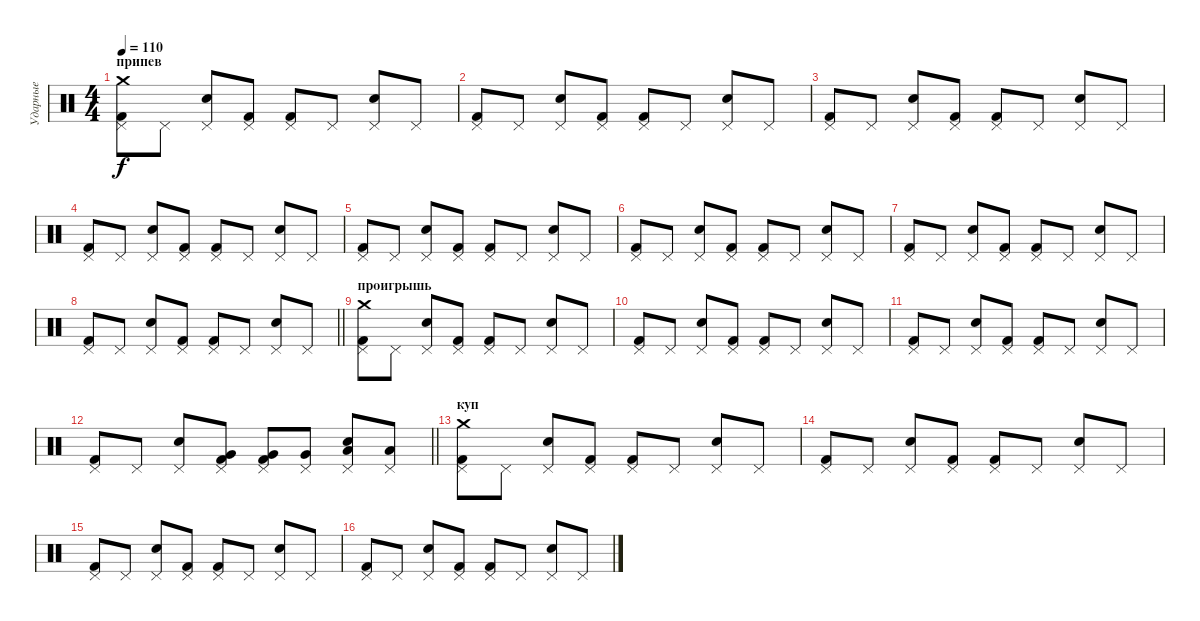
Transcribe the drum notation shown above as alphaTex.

\track ("Ударные" "Ударные") {instrument percussion}
\staff {score}
\articulation defaults
\ts (4 4)
\section ("" "припев")
\tempo 110
\clef neutral
\ks c
("Crash medium (hit)" "Pedal Hi-Hat (hit)" "Kick (hit) 2").8{dy f} "Pedal Hi-Hat (hit)".8 ("Pedal Hi-Hat (hit)" "Electric Snare (hit)").8 ("Pedal Hi-Hat (hit)" "Kick (hit) 2").8 ("Pedal Hi-Hat (hit)" "Kick (hit) 2").8 "Pedal Hi-Hat (hit)".8 ("Pedal Hi-Hat (hit)" "Electric Snare (hit)").8 "Pedal Hi-Hat (hit)".8 |
("Pedal Hi-Hat (hit)" "Kick (hit) 2").8 "Pedal Hi-Hat (hit)".8 ("Pedal Hi-Hat (hit)" "Electric Snare (hit)").8 ("Pedal Hi-Hat (hit)" "Kick (hit) 2").8 ("Pedal Hi-Hat (hit)" "Kick (hit) 2").8 "Pedal Hi-Hat (hit)".8 ("Pedal Hi-Hat (hit)" "Electric Snare (hit)").8 "Pedal Hi-Hat (hit)".8 |
("Pedal Hi-Hat (hit)" "Kick (hit) 2").8 "Pedal Hi-Hat (hit)".8 ("Pedal Hi-Hat (hit)" "Electric Snare (hit)").8 ("Pedal Hi-Hat (hit)" "Kick (hit) 2").8 ("Pedal Hi-Hat (hit)" "Kick (hit) 2").8 "Pedal Hi-Hat (hit)".8 ("Pedal Hi-Hat (hit)" "Electric Snare (hit)").8 "Pedal Hi-Hat (hit)".8 |
("Pedal Hi-Hat (hit)" "Kick (hit) 2").8 "Pedal Hi-Hat (hit)".8 ("Pedal Hi-Hat (hit)" "Electric Snare (hit)").8 ("Pedal Hi-Hat (hit)" "Kick (hit) 2").8 ("Pedal Hi-Hat (hit)" "Kick (hit) 2").8 "Pedal Hi-Hat (hit)".8 ("Pedal Hi-Hat (hit)" "Electric Snare (hit)").8 "Pedal Hi-Hat (hit)".8 |
("Pedal Hi-Hat (hit)" "Kick (hit) 2").8 "Pedal Hi-Hat (hit)".8 ("Pedal Hi-Hat (hit)" "Electric Snare (hit)").8 ("Pedal Hi-Hat (hit)" "Kick (hit) 2").8 ("Pedal Hi-Hat (hit)" "Kick (hit) 2").8 "Pedal Hi-Hat (hit)".8 ("Pedal Hi-Hat (hit)" "Electric Snare (hit)").8 "Pedal Hi-Hat (hit)".8 |
("Pedal Hi-Hat (hit)" "Kick (hit) 2").8 "Pedal Hi-Hat (hit)".8 ("Pedal Hi-Hat (hit)" "Electric Snare (hit)").8 ("Pedal Hi-Hat (hit)" "Kick (hit) 2").8 ("Pedal Hi-Hat (hit)" "Kick (hit) 2").8 "Pedal Hi-Hat (hit)".8 ("Pedal Hi-Hat (hit)" "Electric Snare (hit)").8 "Pedal Hi-Hat (hit)".8 |
("Pedal Hi-Hat (hit)" "Kick (hit) 2").8 "Pedal Hi-Hat (hit)".8 ("Pedal Hi-Hat (hit)" "Electric Snare (hit)").8 ("Pedal Hi-Hat (hit)" "Kick (hit) 2").8 ("Pedal Hi-Hat (hit)" "Kick (hit) 2").8 "Pedal Hi-Hat (hit)".8 ("Pedal Hi-Hat (hit)" "Electric Snare (hit)").8 "Pedal Hi-Hat (hit)".8 |
\barLineRight lightlight
("Pedal Hi-Hat (hit)" "Kick (hit) 2").8 "Pedal Hi-Hat (hit)".8 ("Pedal Hi-Hat (hit)" "Electric Snare (hit)").8 ("Pedal Hi-Hat (hit)" "Kick (hit) 2").8 ("Pedal Hi-Hat (hit)" "Kick (hit) 2").8 "Pedal Hi-Hat (hit)".8 ("Pedal Hi-Hat (hit)" "Electric Snare (hit)").8 "Pedal Hi-Hat (hit)".8 |
\section ("" "проигрышь")
("Crash medium (hit)" "Pedal Hi-Hat (hit)" "Kick (hit) 2").8 "Pedal Hi-Hat (hit)".8 ("Pedal Hi-Hat (hit)" "Electric Snare (hit)").8 ("Pedal Hi-Hat (hit)" "Kick (hit) 2").8 ("Pedal Hi-Hat (hit)" "Kick (hit) 2").8 "Pedal Hi-Hat (hit)".8 ("Pedal Hi-Hat (hit)" "Electric Snare (hit)").8 "Pedal Hi-Hat (hit)".8 |
("Pedal Hi-Hat (hit)" "Kick (hit) 2").8 "Pedal Hi-Hat (hit)".8 ("Pedal Hi-Hat (hit)" "Electric Snare (hit)").8 ("Pedal Hi-Hat (hit)" "Kick (hit) 2").8 ("Pedal Hi-Hat (hit)" "Kick (hit) 2").8 "Pedal Hi-Hat (hit)".8 ("Pedal Hi-Hat (hit)" "Electric Snare (hit)").8 "Pedal Hi-Hat (hit)".8 |
("Pedal Hi-Hat (hit)" "Kick (hit) 2").8 "Pedal Hi-Hat (hit)".8 ("Pedal Hi-Hat (hit)" "Electric Snare (hit)").8 ("Pedal Hi-Hat (hit)" "Kick (hit) 2").8 ("Pedal Hi-Hat (hit)" "Kick (hit) 2").8 "Pedal Hi-Hat (hit)".8 ("Pedal Hi-Hat (hit)" "Electric Snare (hit)").8 "Pedal Hi-Hat (hit)".8 |
\barLineRight lightlight
("Pedal Hi-Hat (hit)" "Kick (hit) 2").8 "Pedal Hi-Hat (hit)".8 ("Pedal Hi-Hat (hit)" "Electric Snare (hit)").8 ("Pedal Hi-Hat (hit)" "Very Low Tom (hit)" "Kick (hit) 2").8 ("Pedal Hi-Hat (hit)" "Very Low Tom (hit)" "Kick (hit) 2").8 ("Pedal Hi-Hat (hit)" "Very Low Tom (hit)").8 ("Pedal Hi-Hat (hit)" "Low Floor Tom (hit)" "Electric Snare (hit)").8 ("Pedal Hi-Hat (hit)" "Low Floor Tom (hit)").8 |
\section ("" "куп")
("Crash medium (hit)" "Pedal Hi-Hat (hit)" "Kick (hit) 2").8 "Pedal Hi-Hat (hit)".8 ("Pedal Hi-Hat (hit)" "Electric Snare (hit)").8 ("Pedal Hi-Hat (hit)" "Kick (hit) 2").8 ("Pedal Hi-Hat (hit)" "Kick (hit) 2").8 "Pedal Hi-Hat (hit)".8 ("Pedal Hi-Hat (hit)" "Electric Snare (hit)").8 "Pedal Hi-Hat (hit)".8 |
("Pedal Hi-Hat (hit)" "Kick (hit) 2").8 "Pedal Hi-Hat (hit)".8 ("Pedal Hi-Hat (hit)" "Electric Snare (hit)").8 ("Pedal Hi-Hat (hit)" "Kick (hit) 2").8 ("Pedal Hi-Hat (hit)" "Kick (hit) 2").8 "Pedal Hi-Hat (hit)".8 ("Pedal Hi-Hat (hit)" "Electric Snare (hit)").8 "Pedal Hi-Hat (hit)".8 |
("Pedal Hi-Hat (hit)" "Kick (hit) 2").8 "Pedal Hi-Hat (hit)".8 ("Pedal Hi-Hat (hit)" "Electric Snare (hit)").8 ("Pedal Hi-Hat (hit)" "Kick (hit) 2").8 ("Pedal Hi-Hat (hit)" "Kick (hit) 2").8 "Pedal Hi-Hat (hit)".8 ("Pedal Hi-Hat (hit)" "Electric Snare (hit)").8 "Pedal Hi-Hat (hit)".8 |
("Pedal Hi-Hat (hit)" "Kick (hit) 2").8 "Pedal Hi-Hat (hit)".8 ("Pedal Hi-Hat (hit)" "Electric Snare (hit)").8 ("Pedal Hi-Hat (hit)" "Kick (hit) 2").8 ("Pedal Hi-Hat (hit)" "Kick (hit) 2").8 "Pedal Hi-Hat (hit)".8 ("Pedal Hi-Hat (hit)" "Electric Snare (hit)").8 "Pedal Hi-Hat (hit)".8
